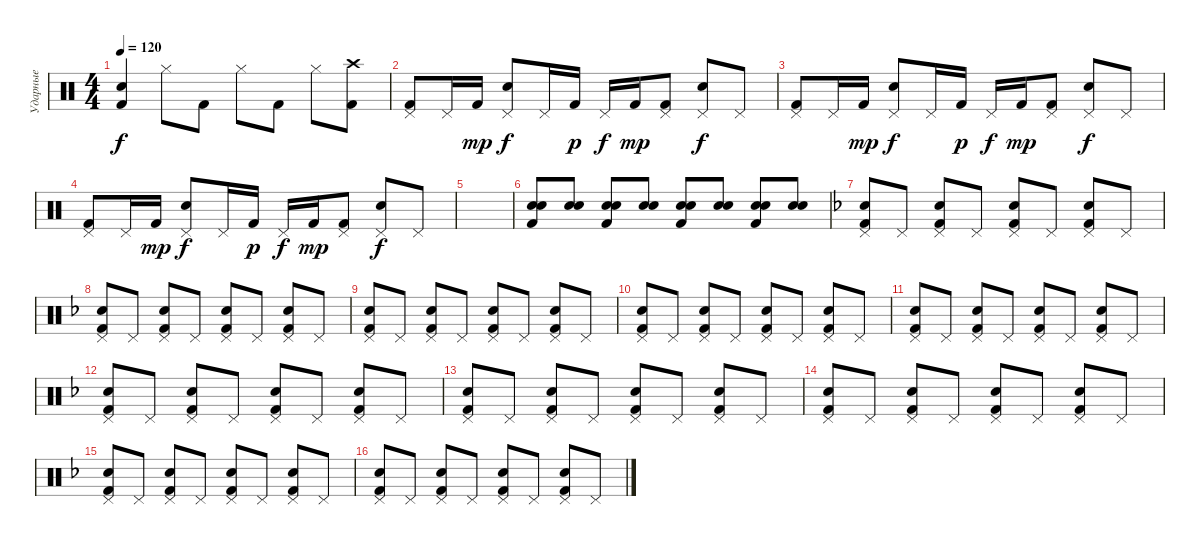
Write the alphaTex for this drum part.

\track ("Ударные" "Ударные") {instrument percussion}
\staff {score}
\articulation defaults
\ts (4 4)
\tempo 120
\clef neutral
\ks c
("Snare (hit) 2" "Kick (hit) 2").4{dy f} "Hi-Hat (closed)".8 "Kick (hit) 2".8 "Hi-Hat (closed)".8 "Kick (hit) 2".8 "Hi-Hat (closed)".8 ("Kick (hit) 2" "Crash high (hit)").8 |
("Pedal Hi-Hat (hit)" "Kick (hit) 2").8 "Pedal Hi-Hat (hit)".16 "Kick (hit) 2".16{dy mp} ("Pedal Hi-Hat (hit)" "Snare (hit) 2").8{dy f} "Pedal Hi-Hat (hit)".16 "Kick (hit) 2".16{dy p} "Pedal Hi-Hat (hit)".16{dy f} "Kick (hit) 2".16{dy mp} ("Pedal Hi-Hat (hit)" "Kick (hit) 2").8 ("Pedal Hi-Hat (hit)" "Snare (hit) 2").8{dy f} "Pedal Hi-Hat (hit)".8 |
("Pedal Hi-Hat (hit)" "Kick (hit) 2").8 "Pedal Hi-Hat (hit)".16 "Kick (hit) 2".16{dy mp} ("Pedal Hi-Hat (hit)" "Snare (hit) 2").8{dy f} "Pedal Hi-Hat (hit)".16 "Kick (hit) 2".16{dy p} "Pedal Hi-Hat (hit)".16{dy f} "Kick (hit) 2".16{dy mp} ("Pedal Hi-Hat (hit)" "Kick (hit) 2").8 ("Pedal Hi-Hat (hit)" "Snare (hit) 2").8{dy f} "Pedal Hi-Hat (hit)".8 |
("Pedal Hi-Hat (hit)" "Kick (hit) 2").8 "Pedal Hi-Hat (hit)".16 "Kick (hit) 2".16{dy mp} ("Pedal Hi-Hat (hit)" "Snare (hit) 2").8{dy f} "Pedal Hi-Hat (hit)".16 "Kick (hit) 2".16{dy p} "Pedal Hi-Hat (hit)".16{dy f} "Kick (hit) 2".16{dy mp} ("Pedal Hi-Hat (hit)" "Kick (hit) 2").8 ("Pedal Hi-Hat (hit)" "Snare (hit) 2").8{dy f} "Pedal Hi-Hat (hit)".8 |
|
("Electric Snare (hit)" "Electric Snare (hit)" "Kick (hit) 2").8 ("Electric Snare (hit)" "Electric Snare (hit)").8 ("Electric Snare (hit)" "Electric Snare (hit)" "Kick (hit) 2").8 ("Electric Snare (hit)" "Electric Snare (hit)").8 ("Electric Snare (hit)" "Electric Snare (hit)" "Kick (hit) 2").8 ("Electric Snare (hit)" "Electric Snare (hit)").8 ("Electric Snare (hit)" "Electric Snare (hit)" "Kick (hit) 2").8 ("Electric Snare (hit)" "Electric Snare (hit)").8 |
\ks dminor
("Pedal Hi-Hat (hit)" "Snare (hit) 2" "Kick (hit) 2").8 "Pedal Hi-Hat (hit)".8 ("Pedal Hi-Hat (hit)" "Snare (hit) 2" "Kick (hit) 2").8 "Pedal Hi-Hat (hit)".8 ("Pedal Hi-Hat (hit)" "Snare (hit) 2" "Kick (hit) 2").8 "Pedal Hi-Hat (hit)".8 ("Pedal Hi-Hat (hit)" "Snare (hit) 2" "Kick (hit) 2").8 "Pedal Hi-Hat (hit)".8 |
("Pedal Hi-Hat (hit)" "Snare (hit) 2" "Kick (hit) 2").8 "Pedal Hi-Hat (hit)".8 ("Pedal Hi-Hat (hit)" "Snare (hit) 2" "Kick (hit) 2").8 "Pedal Hi-Hat (hit)".8 ("Pedal Hi-Hat (hit)" "Snare (hit) 2" "Kick (hit) 2").8 "Pedal Hi-Hat (hit)".8 ("Pedal Hi-Hat (hit)" "Snare (hit) 2" "Kick (hit) 2").8 "Pedal Hi-Hat (hit)".8 |
("Pedal Hi-Hat (hit)" "Snare (hit) 2" "Kick (hit) 2").8 "Pedal Hi-Hat (hit)".8 ("Pedal Hi-Hat (hit)" "Snare (hit) 2" "Kick (hit) 2").8 "Pedal Hi-Hat (hit)".8 ("Pedal Hi-Hat (hit)" "Snare (hit) 2" "Kick (hit) 2").8 "Pedal Hi-Hat (hit)".8 ("Pedal Hi-Hat (hit)" "Snare (hit) 2" "Kick (hit) 2").8 "Pedal Hi-Hat (hit)".8 |
("Pedal Hi-Hat (hit)" "Snare (hit) 2" "Kick (hit) 2").8 "Pedal Hi-Hat (hit)".8 ("Pedal Hi-Hat (hit)" "Snare (hit) 2" "Kick (hit) 2").8 "Pedal Hi-Hat (hit)".8 ("Pedal Hi-Hat (hit)" "Snare (hit) 2" "Kick (hit) 2").8 "Pedal Hi-Hat (hit)".8 ("Pedal Hi-Hat (hit)" "Snare (hit) 2" "Kick (hit) 2").8 "Pedal Hi-Hat (hit)".8 |
("Pedal Hi-Hat (hit)" "Snare (hit) 2" "Kick (hit) 2").8 "Pedal Hi-Hat (hit)".8 ("Pedal Hi-Hat (hit)" "Snare (hit) 2" "Kick (hit) 2").8 "Pedal Hi-Hat (hit)".8 ("Pedal Hi-Hat (hit)" "Snare (hit) 2" "Kick (hit) 2").8 "Pedal Hi-Hat (hit)".8 ("Pedal Hi-Hat (hit)" "Snare (hit) 2" "Kick (hit) 2").8 "Pedal Hi-Hat (hit)".8 |
("Pedal Hi-Hat (hit)" "Snare (hit) 2" "Kick (hit) 2").8 "Pedal Hi-Hat (hit)".8 ("Pedal Hi-Hat (hit)" "Snare (hit) 2" "Kick (hit) 2").8 "Pedal Hi-Hat (hit)".8 ("Pedal Hi-Hat (hit)" "Snare (hit) 2" "Kick (hit) 2").8 "Pedal Hi-Hat (hit)".8 ("Pedal Hi-Hat (hit)" "Snare (hit) 2" "Kick (hit) 2").8 "Pedal Hi-Hat (hit)".8 |
("Pedal Hi-Hat (hit)" "Snare (hit) 2" "Kick (hit) 2").8 "Pedal Hi-Hat (hit)".8 ("Pedal Hi-Hat (hit)" "Snare (hit) 2" "Kick (hit) 2").8 "Pedal Hi-Hat (hit)".8 ("Pedal Hi-Hat (hit)" "Snare (hit) 2" "Kick (hit) 2").8 "Pedal Hi-Hat (hit)".8 ("Pedal Hi-Hat (hit)" "Snare (hit) 2" "Kick (hit) 2").8 "Pedal Hi-Hat (hit)".8 |
("Pedal Hi-Hat (hit)" "Snare (hit) 2" "Kick (hit) 2").8 "Pedal Hi-Hat (hit)".8 ("Pedal Hi-Hat (hit)" "Snare (hit) 2" "Kick (hit) 2").8 "Pedal Hi-Hat (hit)".8 ("Pedal Hi-Hat (hit)" "Snare (hit) 2" "Kick (hit) 2").8 "Pedal Hi-Hat (hit)".8 ("Pedal Hi-Hat (hit)" "Snare (hit) 2" "Kick (hit) 2").8 "Pedal Hi-Hat (hit)".8 |
("Pedal Hi-Hat (hit)" "Snare (hit) 2" "Kick (hit) 2").8 "Pedal Hi-Hat (hit)".8 ("Pedal Hi-Hat (hit)" "Snare (hit) 2" "Kick (hit) 2").8 "Pedal Hi-Hat (hit)".8 ("Pedal Hi-Hat (hit)" "Snare (hit) 2" "Kick (hit) 2").8 "Pedal Hi-Hat (hit)".8 ("Pedal Hi-Hat (hit)" "Snare (hit) 2" "Kick (hit) 2").8 "Pedal Hi-Hat (hit)".8 |
("Pedal Hi-Hat (hit)" "Snare (hit) 2" "Kick (hit) 2").8 "Pedal Hi-Hat (hit)".8 ("Pedal Hi-Hat (hit)" "Snare (hit) 2" "Kick (hit) 2").8 "Pedal Hi-Hat (hit)".8 ("Pedal Hi-Hat (hit)" "Snare (hit) 2" "Kick (hit) 2").8 "Pedal Hi-Hat (hit)".8 ("Pedal Hi-Hat (hit)" "Snare (hit) 2" "Kick (hit) 2").8 "Pedal Hi-Hat (hit)".8
